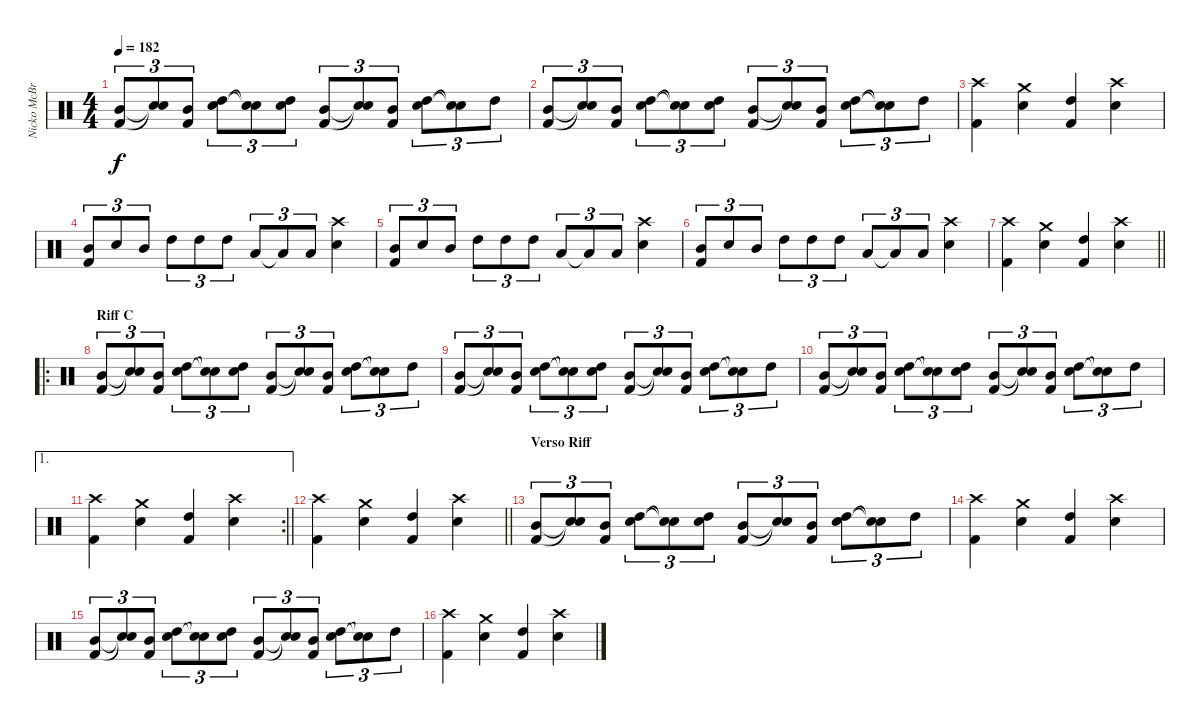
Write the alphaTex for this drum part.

\track ("Nicko McBrain" "Nicko McBr") {instrument percussion}
\staff {score}
\articulation defaults
\ts (4 4)
\tempo 182
\clef neutral
\ks c
("Mid Tom (hit)" "Kick (hit) 2").8{tu (3 2) dy f} ("Snare (hit)"{t} "Snare (hit)"{t}).8{tu (3 2)} ("Mid Tom (hit)" "Kick (hit) 2").8{tu (3 2)} ("High Tom (hit)" "Snare (hit) 2").8{tu (3 2)} ("Snare (hit)"{t} "Snare (hit)"{t}).8{tu (3 2)} ("High Tom (hit)" "Snare (hit) 2").8{tu (3 2)} ("Mid Tom (hit)" "Kick (hit) 2").8{tu (3 2)} ("Snare (hit)"{t} "Snare (hit)"{t}).8{tu (3 2)} ("Mid Tom (hit)" "Kick (hit) 2").8{tu (3 2)} ("High Tom (hit)" "Snare (hit) 2").8{tu (3 2)} ("Snare (hit)"{t} "Snare (hit)"{t}).8{tu (3 2)} "High Tom (hit)".8{tu (3 2)} |
("Mid Tom (hit)" "Kick (hit) 2").8{tu (3 2)} ("Snare (hit)"{t} "Snare (hit)"{t}).8{tu (3 2)} ("Mid Tom (hit)" "Kick (hit) 2").8{tu (3 2)} ("High Tom (hit)" "Snare (hit) 2").8{tu (3 2)} ("Snare (hit)"{t} "Snare (hit)"{t}).8{tu (3 2)} ("High Tom (hit)" "Snare (hit) 2").8{tu (3 2)} ("Mid Tom (hit)" "Kick (hit) 2").8{tu (3 2)} ("Snare (hit)"{t} "Snare (hit)"{t}).8{tu (3 2)} ("Mid Tom (hit)" "Kick (hit) 2").8{tu (3 2)} ("High Tom (hit)" "Snare (hit) 2").8{tu (3 2)} ("Snare (hit)"{t} "Snare (hit)"{t}).8{tu (3 2)} "High Tom (hit)".8{tu (3 2)} |
("Kick (hit) 2" "Crash high (hit)").4 ("Snare (hit) 2" "Crash medium (hit)").4 ("High Tom (hit)" "Kick (hit) 2").4 ("Snare (hit) 2" "Crash high (hit)").4 |
("Mid Tom (hit)" "Kick (hit) 2").8{tu (3 2)} "Snare (hit) 2".8{tu (3 2)} "Mid Tom (hit)".8{tu (3 2)} "High Tom (hit)".8{tu (3 2)} "High Tom (hit)".8{tu (3 2)} "High Tom (hit)".8{tu (3 2)} "Low Tom (hit)".8{tu (3 2)} "Low Tom (hit)"{t}.8{tu (3 2)} "Low Tom (hit)".8{tu (3 2)} ("Snare (hit) 2" "Crash high (hit)").4 |
("Mid Tom (hit)" "Kick (hit) 2").8{tu (3 2)} "Snare (hit) 2".8{tu (3 2)} "Mid Tom (hit)".8{tu (3 2)} "High Tom (hit)".8{tu (3 2)} "High Tom (hit)".8{tu (3 2)} "High Tom (hit)".8{tu (3 2)} "Low Tom (hit)".8{tu (3 2)} "Low Tom (hit)"{t}.8{tu (3 2)} "Low Tom (hit)".8{tu (3 2)} ("Snare (hit) 2" "Crash high (hit)").4 |
("Mid Tom (hit)" "Kick (hit) 2").8{tu (3 2)} "Snare (hit) 2".8{tu (3 2)} "Mid Tom (hit)".8{tu (3 2)} "High Tom (hit)".8{tu (3 2)} "High Tom (hit)".8{tu (3 2)} "High Tom (hit)".8{tu (3 2)} "Low Tom (hit)".8{tu (3 2)} "Low Tom (hit)"{t}.8{tu (3 2)} "Low Tom (hit)".8{tu (3 2)} ("Snare (hit) 2" "Crash high (hit)").4 |
\barLineRight lightlight
("Kick (hit) 2" "Crash high (hit)").4 ("Snare (hit) 2" "Crash medium (hit)").4 ("High Tom (hit)" "Kick (hit) 2").4 ("Snare (hit) 2" "Crash high (hit)").4 |
\ro
\section ("" "Riff C")
("Mid Tom (hit)" "Kick (hit) 2").8{tu (3 2)} ("Snare (hit)"{t} "Snare (hit)"{t}).8{tu (3 2)} ("Mid Tom (hit)" "Kick (hit) 2").8{tu (3 2)} ("High Tom (hit)" "Snare (hit) 2").8{tu (3 2)} ("Snare (hit)"{t} "Snare (hit)"{t}).8{tu (3 2)} ("High Tom (hit)" "Snare (hit) 2").8{tu (3 2)} ("Mid Tom (hit)" "Kick (hit) 2").8{tu (3 2)} ("Snare (hit)"{t} "Snare (hit)"{t}).8{tu (3 2)} ("Mid Tom (hit)" "Kick (hit) 2").8{tu (3 2)} ("High Tom (hit)" "Snare (hit) 2").8{tu (3 2)} ("Snare (hit)"{t} "Snare (hit)"{t}).8{tu (3 2)} "High Tom (hit)".8{tu (3 2)} |
("Mid Tom (hit)" "Kick (hit) 2").8{tu (3 2)} ("Snare (hit)"{t} "Snare (hit)"{t}).8{tu (3 2)} ("Mid Tom (hit)" "Kick (hit) 2").8{tu (3 2)} ("High Tom (hit)" "Snare (hit) 2").8{tu (3 2)} ("Snare (hit)"{t} "Snare (hit)"{t}).8{tu (3 2)} ("High Tom (hit)" "Snare (hit) 2").8{tu (3 2)} ("Mid Tom (hit)" "Kick (hit) 2").8{tu (3 2)} ("Snare (hit)"{t} "Snare (hit)"{t}).8{tu (3 2)} ("Mid Tom (hit)" "Kick (hit) 2").8{tu (3 2)} ("High Tom (hit)" "Snare (hit) 2").8{tu (3 2)} ("Snare (hit)"{t} "Snare (hit)"{t}).8{tu (3 2)} "High Tom (hit)".8{tu (3 2)} |
("Mid Tom (hit)" "Kick (hit) 2").8{tu (3 2)} ("Snare (hit)"{t} "Snare (hit)"{t}).8{tu (3 2)} ("Mid Tom (hit)" "Kick (hit) 2").8{tu (3 2)} ("High Tom (hit)" "Snare (hit) 2").8{tu (3 2)} ("Snare (hit)"{t} "Snare (hit)"{t}).8{tu (3 2)} ("High Tom (hit)" "Snare (hit) 2").8{tu (3 2)} ("Mid Tom (hit)" "Kick (hit) 2").8{tu (3 2)} ("Snare (hit)"{t} "Snare (hit)"{t}).8{tu (3 2)} ("Mid Tom (hit)" "Kick (hit) 2").8{tu (3 2)} ("High Tom (hit)" "Snare (hit) 2").8{tu (3 2)} ("Snare (hit)"{t} "Snare (hit)"{t}).8{tu (3 2)} "High Tom (hit)".8{tu (3 2)} |
\ae 1
\rc 2
\barLineRight lightlight
("Kick (hit) 2" "Crash high (hit)").4 ("Snare (hit) 2" "Crash medium (hit)").4 ("High Tom (hit)" "Kick (hit) 2").4 ("Snare (hit) 2" "Crash high (hit)").4 |
\barLineRight lightlight
("Kick (hit) 2" "Crash high (hit)").4 ("Snare (hit) 2" "Crash medium (hit)").4 ("High Tom (hit)" "Kick (hit) 2").4 ("Snare (hit) 2" "Crash high (hit)").4 |
\section ("" "Verso Riff")
("Mid Tom (hit)" "Kick (hit) 2").8{tu (3 2)} ("Snare (hit)"{t} "Snare (hit)"{t}).8{tu (3 2)} ("Mid Tom (hit)" "Kick (hit) 2").8{tu (3 2)} ("High Tom (hit)" "Snare (hit) 2").8{tu (3 2)} ("Snare (hit)"{t} "Snare (hit)"{t}).8{tu (3 2)} ("High Tom (hit)" "Snare (hit) 2").8{tu (3 2)} ("Mid Tom (hit)" "Kick (hit) 2").8{tu (3 2)} ("Snare (hit)"{t} "Snare (hit)"{t}).8{tu (3 2)} ("Mid Tom (hit)" "Kick (hit) 2").8{tu (3 2)} ("High Tom (hit)" "Snare (hit) 2").8{tu (3 2)} ("Snare (hit)"{t} "Snare (hit)"{t}).8{tu (3 2)} "High Tom (hit)".8{tu (3 2)} |
("Kick (hit) 2" "Crash high (hit)").4 ("Snare (hit) 2" "Crash medium (hit)").4 ("High Tom (hit)" "Kick (hit) 2").4 ("Snare (hit) 2" "Crash high (hit)").4 |
("Mid Tom (hit)" "Kick (hit) 2").8{tu (3 2)} ("Snare (hit)"{t} "Snare (hit)"{t}).8{tu (3 2)} ("Mid Tom (hit)" "Kick (hit) 2").8{tu (3 2)} ("High Tom (hit)" "Snare (hit) 2").8{tu (3 2)} ("Snare (hit)"{t} "Snare (hit)"{t}).8{tu (3 2)} ("High Tom (hit)" "Snare (hit) 2").8{tu (3 2)} ("Mid Tom (hit)" "Kick (hit) 2").8{tu (3 2)} ("Snare (hit)"{t} "Snare (hit)"{t}).8{tu (3 2)} ("Mid Tom (hit)" "Kick (hit) 2").8{tu (3 2)} ("High Tom (hit)" "Snare (hit) 2").8{tu (3 2)} ("Snare (hit)"{t} "Snare (hit)"{t}).8{tu (3 2)} "High Tom (hit)".8{tu (3 2)} |
("Kick (hit) 2" "Crash high (hit)").4 ("Snare (hit) 2" "Crash medium (hit)").4 ("High Tom (hit)" "Kick (hit) 2").4 ("Snare (hit) 2" "Crash high (hit)").4
